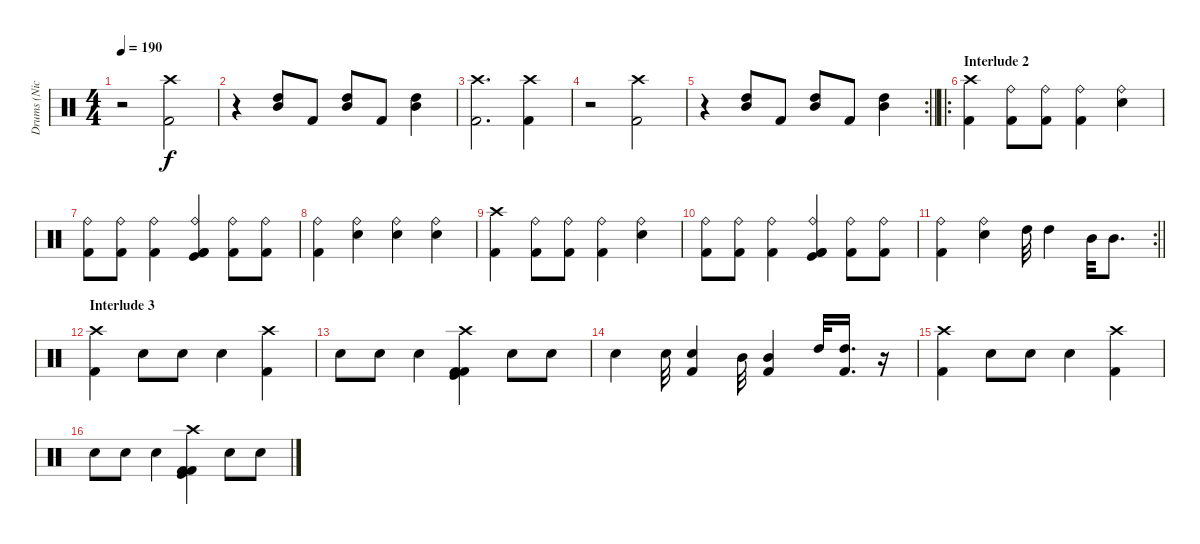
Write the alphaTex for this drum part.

\track ("Drums (Nicko McBrain)" "Drums (Nic") {instrument percussion}
\staff {score}
\articulation defaults
\ts (4 4)
\tempo 190
\clef neutral
\ks c
r.2{dy f} ("Crash high (hit)" "Kick (hit) 2").2 |
r.4 ("Mid Tom (hit)" "High Tom (hit)").8 "Kick (hit) 2".8 ("Mid Tom (hit)" "High Tom (hit)").8 "Kick (hit) 2".8 ("Mid Tom (hit)" "High Tom (hit)").4 |
("Crash high (hit)" "Kick (hit) 2").2{d} ("Crash high (hit)" "Kick (hit) 2").4 |
r.2 ("Crash high (hit)" "Kick (hit) 2").2 |
\rc 2
\barLineRight lightlight
r.4 ("Mid Tom (hit)" "High Tom (hit)").8 "Kick (hit) 2".8 ("Mid Tom (hit)" "High Tom (hit)").8 "Kick (hit) 2".8 ("Mid Tom (hit)" "High Tom (hit)").4 |
\ro
\section ("" "Interlude 2")
("Crash high (hit)" "Kick (hit) 2").4 ("Ride (bell)" "Kick (hit) 2").8 ("Ride (bell)" "Kick (hit) 2").8 ("Ride (bell)" "Kick (hit) 2").4 ("Ride (bell)" "Electric Snare (hit)").4 |
("Ride (bell)" "Kick (hit) 2").8 ("Ride (bell)" "Kick (hit) 2").8 ("Ride (bell)" "Kick (hit) 2").4 ("Ride (bell)" "Kick (hit) 2" "Kick (hit)" "Kick (hit) 2").4 ("Ride (bell)" "Kick (hit) 2").8 ("Ride (bell)" "Kick (hit) 2").8 |
("Ride (bell)" "Kick (hit) 2").4 ("Ride (bell)" "Electric Snare (hit)").4 ("Ride (bell)" "Electric Snare (hit)").4 ("Ride (bell)" "Electric Snare (hit)").4 |
("Crash high (hit)" "Kick (hit) 2").4 ("Ride (bell)" "Kick (hit) 2").8 ("Ride (bell)" "Kick (hit) 2").8 ("Ride (bell)" "Kick (hit) 2").4 ("Ride (bell)" "Electric Snare (hit)").4 |
("Ride (bell)" "Kick (hit) 2").8 ("Ride (bell)" "Kick (hit) 2").8 ("Ride (bell)" "Kick (hit) 2").4 ("Ride (bell)" "Kick (hit) 2" "Kick (hit)" "Kick (hit) 2").4 ("Ride (bell)" "Kick (hit) 2").8 ("Ride (bell)" "Kick (hit) 2").8 |
\rc 2
\barLineRight lightlight
("Ride (bell)" "Kick (hit) 2").4 ("Ride (bell)" "Electric Snare (hit)").4 "High Tom (hit)".32 "High Tom (hit)".4 "Mid Tom (hit)".32 "Mid Tom (hit)".8{d} |
\section ("" "Interlude 3")
("Crash high (hit)" "Kick (hit) 2").4 "Electric Snare (hit)".8 "Electric Snare (hit)".8 "Electric Snare (hit)".4 ("Crash high (hit)" "Kick (hit) 2").4 |
"Electric Snare (hit)".8 "Electric Snare (hit)".8 "Electric Snare (hit)".4 ("Crash high (hit)" "Kick (hit) 2" "Kick (hit)" "Kick (hit) 2").4 "Electric Snare (hit)".8 "Electric Snare (hit)".8 |
"Electric Snare (hit)".4 "Electric Snare (hit)".32 ("Electric Snare (hit)" "Kick (hit) 2").4 "Mid Tom (hit)".32 ("Mid Tom (hit)" "Kick (hit) 2").4 "High Tom (hit)".32 ("High Tom (hit)" "Kick (hit) 2").16{d} r.16 |
("Crash high (hit)" "Kick (hit) 2").4 "Electric Snare (hit)".8 "Electric Snare (hit)".8 "Electric Snare (hit)".4 ("Crash high (hit)" "Kick (hit) 2").4 |
"Electric Snare (hit)".8 "Electric Snare (hit)".8 "Electric Snare (hit)".4 ("Crash high (hit)" "Kick (hit) 2" "Kick (hit)" "Kick (hit) 2").4 "Electric Snare (hit)".8 "Electric Snare (hit)".8
